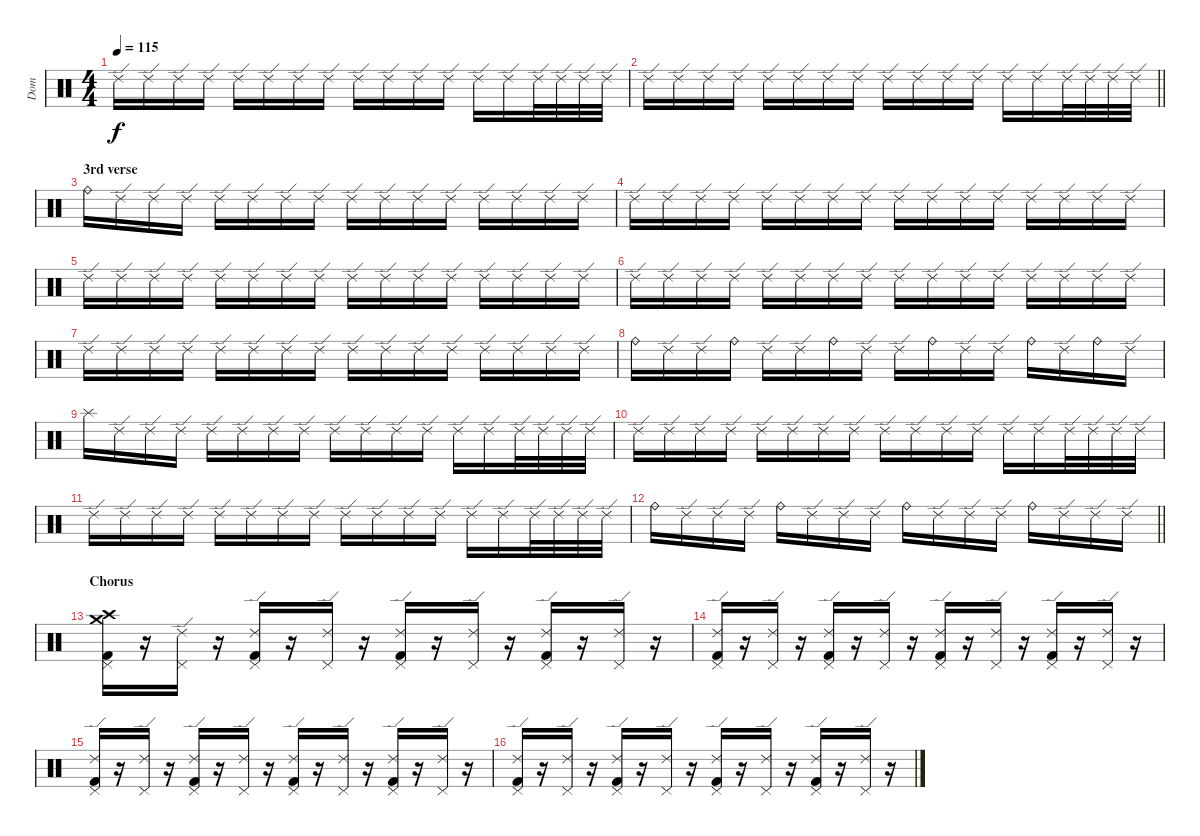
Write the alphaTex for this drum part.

\track ("Dom" "Dom") {instrument percussion}
\staff {score}
\articulation defaults
\ts (4 4)
\tempo 115
\clef neutral
\ks c "Ride (edge) 2".16{dy f} "Ride (edge) 2".16 "Ride (edge) 2".16 "Ride (edge) 2".16 "Ride (edge) 2".16 "Ride (edge) 2".16 "Ride (edge) 2".16 "Ride (edge) 2".16 "Ride (edge) 2".16 "Ride (edge) 2".16 "Ride (edge) 2".16 "Ride (edge) 2".16 "Ride (edge) 2".16 "Ride (edge) 2".16 "Ride (edge) 2".32 "Ride (edge) 2".32 "Ride (edge) 2".32 "Ride (edge) 2".32
|
\barLineRight lightlight "Ride (edge) 2".16 "Ride (edge) 2".16 "Ride (edge) 2".16 "Ride (edge) 2".16 "Ride (edge) 2".16 "Ride (edge) 2".16 "Ride (edge) 2".16 "Ride (edge) 2".16 "Ride (edge) 2".16 "Ride (edge) 2".16 "Ride (edge) 2".16 "Ride (edge) 2".16 "Ride (edge) 2".16 "Ride (edge) 2".16 "Ride (edge) 2".32 "Ride (edge) 2".32 "Ride (edge) 2".32 "Ride (edge) 2".32
|
\section ("" "3rd verse")
"Ride (bell)".16 "Ride (edge) 2".16 "Ride (edge) 2".16 "Ride (edge) 2".16 "Ride (edge) 2".16 "Ride (edge) 2".16 "Ride (edge) 2".16 "Ride (edge) 2".16 "Ride (edge) 2".16 "Ride (edge) 2".16 "Ride (edge) 2".16 "Ride (edge) 2".16 "Ride (edge) 2".16 "Ride (edge) 2".16 "Ride (edge) 2".16 "Ride (edge) 2".16 |
"Ride (edge) 2".16 "Ride (edge) 2".16 "Ride (edge) 2".16 "Ride (edge) 2".16 "Ride (edge) 2".16 "Ride (edge) 2".16 "Ride (edge) 2".16 "Ride (edge) 2".16 "Ride (edge) 2".16 "Ride (edge) 2".16 "Ride (edge) 2".16 "Ride (edge) 2".16 "Ride (edge) 2".16 "Ride (edge) 2".16 "Ride (edge) 2".16 "Ride (edge) 2".16 |
"Ride (edge) 2".16 "Ride (edge) 2".16 "Ride (edge) 2".16 "Ride (edge) 2".16 "Ride (edge) 2".16 "Ride (edge) 2".16 "Ride (edge) 2".16 "Ride (edge) 2".16 "Ride (edge) 2".16 "Ride (edge) 2".16 "Ride (edge) 2".16 "Ride (edge) 2".16 "Ride (edge) 2".16 "Ride (edge) 2".16 "Ride (edge) 2".16 "Ride (edge) 2".16 |
"Ride (edge) 2".16 "Ride (edge) 2".16 "Ride (edge) 2".16 "Ride (edge) 2".16 "Ride (edge) 2".16 "Ride (edge) 2".16 "Ride (edge) 2".16 "Ride (edge) 2".16 "Ride (edge) 2".16 "Ride (edge) 2".16 "Ride (edge) 2".16 "Ride (edge) 2".16 "Ride (edge) 2".16 "Ride (edge) 2".16 "Ride (edge) 2".16 "Ride (edge) 2".16 |
"Ride (edge) 2".16 "Ride (edge) 2".16 "Ride (edge) 2".16 "Ride (edge) 2".16 "Ride (edge) 2".16 "Ride (edge) 2".16 "Ride (edge) 2".16 "Ride (edge) 2".16 "Ride (edge) 2".16 "Ride (edge) 2".16 "Ride (edge) 2".16 "Ride (edge) 2".16 "Ride (edge) 2".16 "Ride (edge) 2".16 "Ride (edge) 2".16 "Ride (edge) 2".16 |
"Ride (bell)".16 "Ride (edge) 2".16 "Ride (edge) 2".16 "Ride (bell)".16 "Ride (edge) 2".16 "Ride (edge) 2".16 "Ride (bell)".16 "Ride (edge) 2".16 "Ride (edge) 2".16 "Ride (bell)".16 "Ride (edge) 2".16 "Ride (edge) 2".16 "Ride (bell)".16 "Ride (edge) 2".16 "Ride (bell)".16 "Ride (edge) 2".16 |
"Splash (hit)".16 "Ride (edge) 2".16 "Ride (edge) 2".16 "Ride (edge) 2".16 "Ride (edge) 2".16 "Ride (edge) 2".16 "Ride (edge) 2".16 "Ride (edge) 2".16 "Ride (edge) 2".16 "Ride (edge) 2".16 "Ride (edge) 2".16 "Ride (edge) 2".16 "Ride (edge) 2".16 "Ride (edge) 2".16 "Ride (edge) 2".32 "Ride (edge) 2".32 "Ride (edge) 2".32 "Ride (edge) 2".32 |
"Ride (edge) 2".16 "Ride (edge) 2".16 "Ride (edge) 2".16 "Ride (edge) 2".16 "Ride (edge) 2".16 "Ride (edge) 2".16 "Ride (edge) 2".16 "Ride (edge) 2".16 "Ride (edge) 2".16 "Ride (edge) 2".16 "Ride (edge) 2".16 "Ride (edge) 2".16 "Ride (edge) 2".16 "Ride (edge) 2".16 "Ride (edge) 2".32 "Ride (edge) 2".32 "Ride (edge) 2".32 "Ride (edge) 2".32 |
"Ride (edge) 2".16 "Ride (edge) 2".16 "Ride (edge) 2".16 "Ride (edge) 2".16 "Ride (edge) 2".16 "Ride (edge) 2".16 "Ride (edge) 2".16 "Ride (edge) 2".16 "Ride (edge) 2".16 "Ride (edge) 2".16 "Ride (edge) 2".16 "Ride (edge) 2".16 "Ride (edge) 2".16 "Ride (edge) 2".16 "Ride (edge) 2".32 "Ride (edge) 2".32 "Ride (edge) 2".32 "Ride (edge) 2".32 |
\barLineRight lightlight "Ride (bell)".16 "Ride (edge) 2".16 "Ride (edge) 2".16 "Ride (edge) 2".16 "Ride (bell)".16 "Ride (edge) 2".16 "Ride (edge) 2".16 "Ride (edge) 2".16 "Ride (bell)".16 "Ride (edge) 2".16 "Ride (edge) 2".16 "Ride (edge) 2".16 "Ride (bell)".16 "Ride (edge) 2".16 "Ride (edge) 2".16 "Ride (edge) 2".16
|
\section ("" "Chorus")
("Crash medium (hit)" "Crash high (hit)" "Pedal Hi-Hat (hit)" "Kick (hit) 2").16 r.16 ("Ride (edge) 2" "Pedal Hi-Hat (hit)").16 r.16 ("Ride (edge) 2" "Pedal Hi-Hat (hit)" "Kick (hit) 2").16 r.16 ("Ride (edge) 2" "Pedal Hi-Hat (hit)").16 r.16 ("Ride (edge) 2" "Pedal Hi-Hat (hit)" "Kick (hit) 2").16 r.16 ("Ride (edge) 2" "Pedal Hi-Hat (hit)").16 r.16 ("Ride (edge) 2" "Pedal Hi-Hat (hit)" "Kick (hit) 2").16 r.16 ("Ride (edge) 2" "Pedal Hi-Hat (hit)").16 r.16 |
("Ride (edge) 2" "Pedal Hi-Hat (hit)" "Kick (hit) 2").16 r.16 ("Ride (edge) 2" "Pedal Hi-Hat (hit)").16 r.16 ("Ride (edge) 2" "Pedal Hi-Hat (hit)" "Kick (hit) 2").16 r.16 ("Ride (edge) 2" "Pedal Hi-Hat (hit)").16 r.16 ("Ride (edge) 2" "Pedal Hi-Hat (hit)" "Kick (hit) 2").16 r.16 ("Ride (edge) 2" "Pedal Hi-Hat (hit)").16 r.16 ("Ride (edge) 2" "Pedal Hi-Hat (hit)" "Kick (hit) 2").16 r.16 ("Ride (edge) 2" "Pedal Hi-Hat (hit)").16 r.16 |
("Ride (edge) 2" "Pedal Hi-Hat (hit)" "Kick (hit) 2").16 r.16 ("Ride (edge) 2" "Pedal Hi-Hat (hit)").16 r.16 ("Ride (edge) 2" "Pedal Hi-Hat (hit)" "Kick (hit) 2").16 r.16 ("Ride (edge) 2" "Pedal Hi-Hat (hit)").16 r.16 ("Ride (edge) 2" "Pedal Hi-Hat (hit)" "Kick (hit) 2").16 r.16 ("Ride (edge) 2" "Pedal Hi-Hat (hit)").16 r.16 ("Ride (edge) 2" "Pedal Hi-Hat (hit)" "Kick (hit) 2").16 r.16 ("Ride (edge) 2" "Pedal Hi-Hat (hit)").16 r.16 |
("Ride (edge) 2" "Pedal Hi-Hat (hit)" "Kick (hit) 2").16 r.16 ("Ride (edge) 2" "Pedal Hi-Hat (hit)").16 r.16 ("Ride (edge) 2" "Pedal Hi-Hat (hit)" "Kick (hit) 2").16 r.16 ("Ride (edge) 2" "Pedal Hi-Hat (hit)").16 r.16 ("Ride (edge) 2" "Pedal Hi-Hat (hit)" "Kick (hit) 2").16 r.16 ("Ride (edge) 2" "Pedal Hi-Hat (hit)").16 r.16 ("Ride (edge) 2" "Pedal Hi-Hat (hit)" "Kick (hit) 2").16 r.16 ("Ride (edge) 2" "Pedal Hi-Hat (hit)").16 r.16
